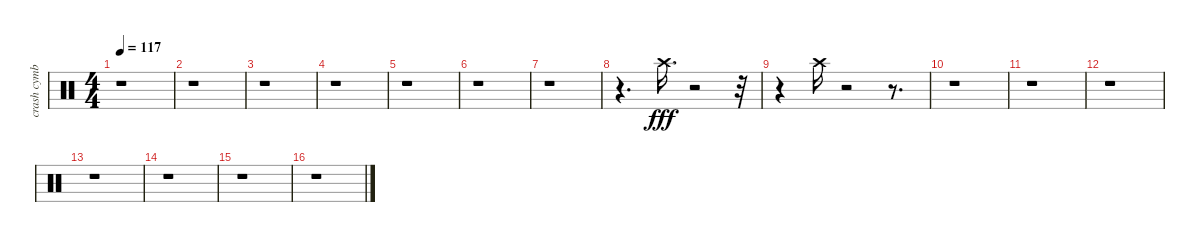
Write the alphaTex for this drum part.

\track ("crash cymbal" "crash cymb") {instrument percussion}
\staff {score}
\articulation defaults
\ts (4 4)
\tempo 117
\clef neutral
\ks c
r.1{dy fff} |
r.1 |
r.1 |
r.1 |
r.1 |
r.1 |
r.1 |
r.4{d} "Crash high (hit)".16{d} r.2 r.32 |
r.4 "Crash high (hit)".16 r.2 r.8{d} |
r.1 |
r.1 |
r.1 |
r.1 |
r.1 |
r.1 |
r.1
